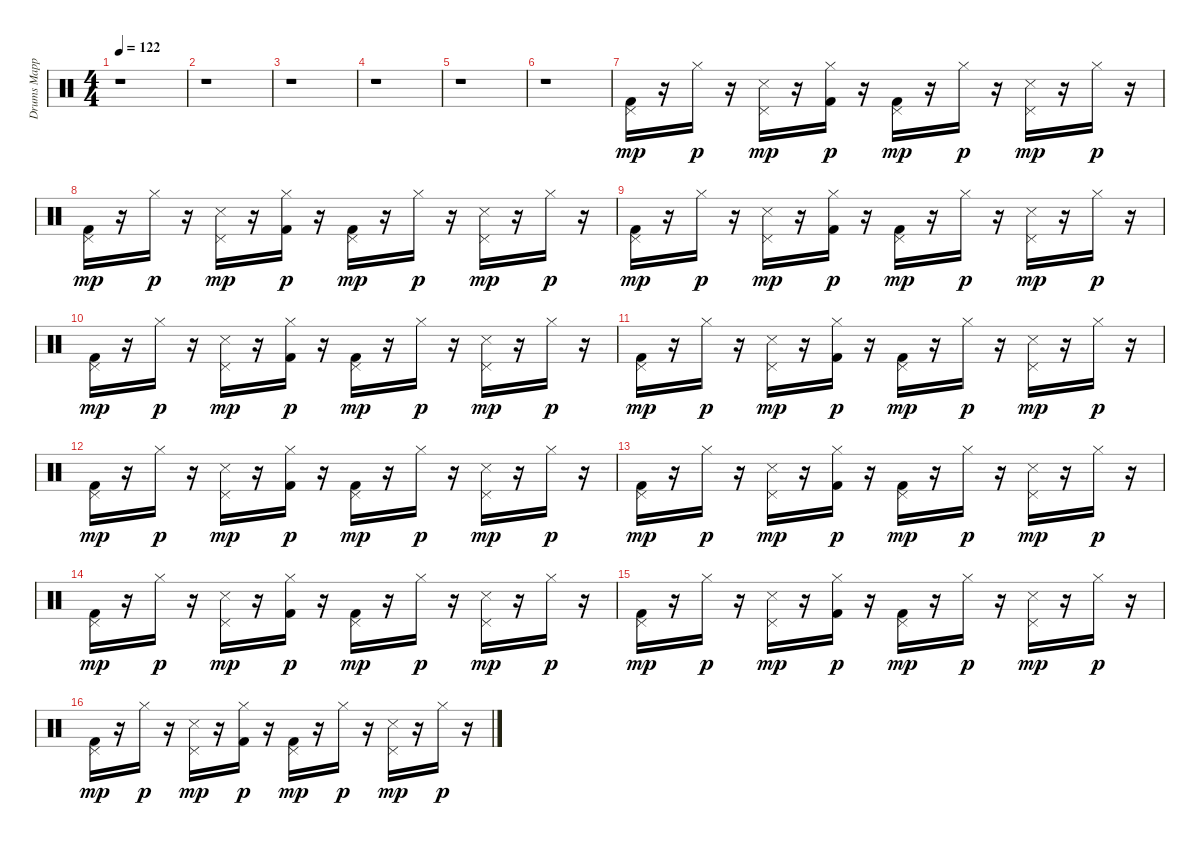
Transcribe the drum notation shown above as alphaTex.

\track ("Drums Mapped*merged" "Drums Mapp") {instrument percussion}
\staff {score}
\articulation defaults
\ts (4 4)
\tempo 122
\clef neutral
\ks c
r.1{dy mp} |
r.1 |
r.1 |
r.1 |
r.1 |
r.1 |
("Kick (hit) 2" "Pedal Hi-Hat (hit)").16 r.16 "Hi-Hat (closed)".16{dy p} r.16 ("Snare (side stick) 3" "Pedal Hi-Hat (hit)").16{dy mp} r.16 ("Kick (hit) 2" "Hi-Hat (closed)").16{dy p} r.16 ("Kick (hit) 2" "Pedal Hi-Hat (hit)").16{dy mp} r.16 "Hi-Hat (closed)".16{dy p} r.16 ("Snare (side stick) 3" "Pedal Hi-Hat (hit)").16{dy mp} r.16 "Hi-Hat (closed)".16{dy p} r.16 |
("Kick (hit) 2" "Pedal Hi-Hat (hit)").16{dy mp} r.16 "Hi-Hat (closed)".16{dy p} r.16 ("Snare (side stick) 3" "Pedal Hi-Hat (hit)").16{dy mp} r.16 ("Kick (hit) 2" "Hi-Hat (closed)").16{dy p} r.16 ("Kick (hit) 2" "Pedal Hi-Hat (hit)").16{dy mp} r.16 "Hi-Hat (closed)".16{dy p} r.16 ("Snare (side stick) 3" "Pedal Hi-Hat (hit)").16{dy mp} r.16 "Hi-Hat (closed)".16{dy p} r.16 |
("Kick (hit) 2" "Pedal Hi-Hat (hit)").16{dy mp} r.16 "Hi-Hat (closed)".16{dy p} r.16 ("Snare (side stick) 3" "Pedal Hi-Hat (hit)").16{dy mp} r.16 ("Kick (hit) 2" "Hi-Hat (closed)").16{dy p} r.16 ("Kick (hit) 2" "Pedal Hi-Hat (hit)").16{dy mp} r.16 "Hi-Hat (closed)".16{dy p} r.16 ("Snare (side stick) 3" "Pedal Hi-Hat (hit)").16{dy mp} r.16 "Hi-Hat (closed)".16{dy p} r.16 |
("Kick (hit) 2" "Pedal Hi-Hat (hit)").16{dy mp} r.16 "Hi-Hat (closed)".16{dy p} r.16 ("Snare (side stick) 3" "Pedal Hi-Hat (hit)").16{dy mp} r.16 ("Kick (hit) 2" "Hi-Hat (closed)").16{dy p} r.16 ("Kick (hit) 2" "Pedal Hi-Hat (hit)").16{dy mp} r.16 "Hi-Hat (closed)".16{dy p} r.16 ("Snare (side stick) 3" "Pedal Hi-Hat (hit)").16{dy mp} r.16 "Hi-Hat (closed)".16{dy p} r.16 |
("Kick (hit) 2" "Pedal Hi-Hat (hit)").16{dy mp} r.16 "Hi-Hat (closed)".16{dy p} r.16 ("Snare (side stick) 3" "Pedal Hi-Hat (hit)").16{dy mp} r.16 ("Kick (hit) 2" "Hi-Hat (closed)").16{dy p} r.16 ("Kick (hit) 2" "Pedal Hi-Hat (hit)").16{dy mp} r.16 "Hi-Hat (closed)".16{dy p} r.16 ("Snare (side stick) 3" "Pedal Hi-Hat (hit)").16{dy mp} r.16 "Hi-Hat (closed)".16{dy p} r.16 |
("Kick (hit) 2" "Pedal Hi-Hat (hit)").16{dy mp} r.16 "Hi-Hat (closed)".16{dy p} r.16 ("Snare (side stick) 3" "Pedal Hi-Hat (hit)").16{dy mp} r.16 ("Kick (hit) 2" "Hi-Hat (closed)").16{dy p} r.16 ("Kick (hit) 2" "Pedal Hi-Hat (hit)").16{dy mp} r.16 "Hi-Hat (closed)".16{dy p} r.16 ("Snare (side stick) 3" "Pedal Hi-Hat (hit)").16{dy mp} r.16 "Hi-Hat (closed)".16{dy p} r.16 |
("Kick (hit) 2" "Pedal Hi-Hat (hit)").16{dy mp} r.16 "Hi-Hat (closed)".16{dy p} r.16 ("Snare (side stick) 3" "Pedal Hi-Hat (hit)").16{dy mp} r.16 ("Kick (hit) 2" "Hi-Hat (closed)").16{dy p} r.16 ("Kick (hit) 2" "Pedal Hi-Hat (hit)").16{dy mp} r.16 "Hi-Hat (closed)".16{dy p} r.16 ("Snare (side stick) 3" "Pedal Hi-Hat (hit)").16{dy mp} r.16 "Hi-Hat (closed)".16{dy p} r.16 |
("Kick (hit) 2" "Pedal Hi-Hat (hit)").16{dy mp} r.16 "Hi-Hat (closed)".16{dy p} r.16 ("Snare (side stick) 3" "Pedal Hi-Hat (hit)").16{dy mp} r.16 ("Kick (hit) 2" "Hi-Hat (closed)").16{dy p} r.16 ("Kick (hit) 2" "Pedal Hi-Hat (hit)").16{dy mp} r.16 "Hi-Hat (closed)".16{dy p} r.16 ("Snare (side stick) 3" "Pedal Hi-Hat (hit)").16{dy mp} r.16 "Hi-Hat (closed)".16{dy p} r.16 |
("Kick (hit) 2" "Pedal Hi-Hat (hit)").16{dy mp} r.16 "Hi-Hat (closed)".16{dy p} r.16 ("Snare (side stick) 3" "Pedal Hi-Hat (hit)").16{dy mp} r.16 ("Kick (hit) 2" "Hi-Hat (closed)").16{dy p} r.16 ("Kick (hit) 2" "Pedal Hi-Hat (hit)").16{dy mp} r.16 "Hi-Hat (closed)".16{dy p} r.16 ("Snare (side stick) 3" "Pedal Hi-Hat (hit)").16{dy mp} r.16 "Hi-Hat (closed)".16{dy p} r.16 |
("Kick (hit) 2" "Pedal Hi-Hat (hit)").16{dy mp} r.16 "Hi-Hat (closed)".16{dy p} r.16 ("Snare (side stick) 3" "Pedal Hi-Hat (hit)").16{dy mp} r.16 ("Kick (hit) 2" "Hi-Hat (closed)").16{dy p} r.16 ("Kick (hit) 2" "Pedal Hi-Hat (hit)").16{dy mp} r.16 "Hi-Hat (closed)".16{dy p} r.16 ("Snare (side stick) 3" "Pedal Hi-Hat (hit)").16{dy mp} r.16 "Hi-Hat (closed)".16{dy p} r.16
